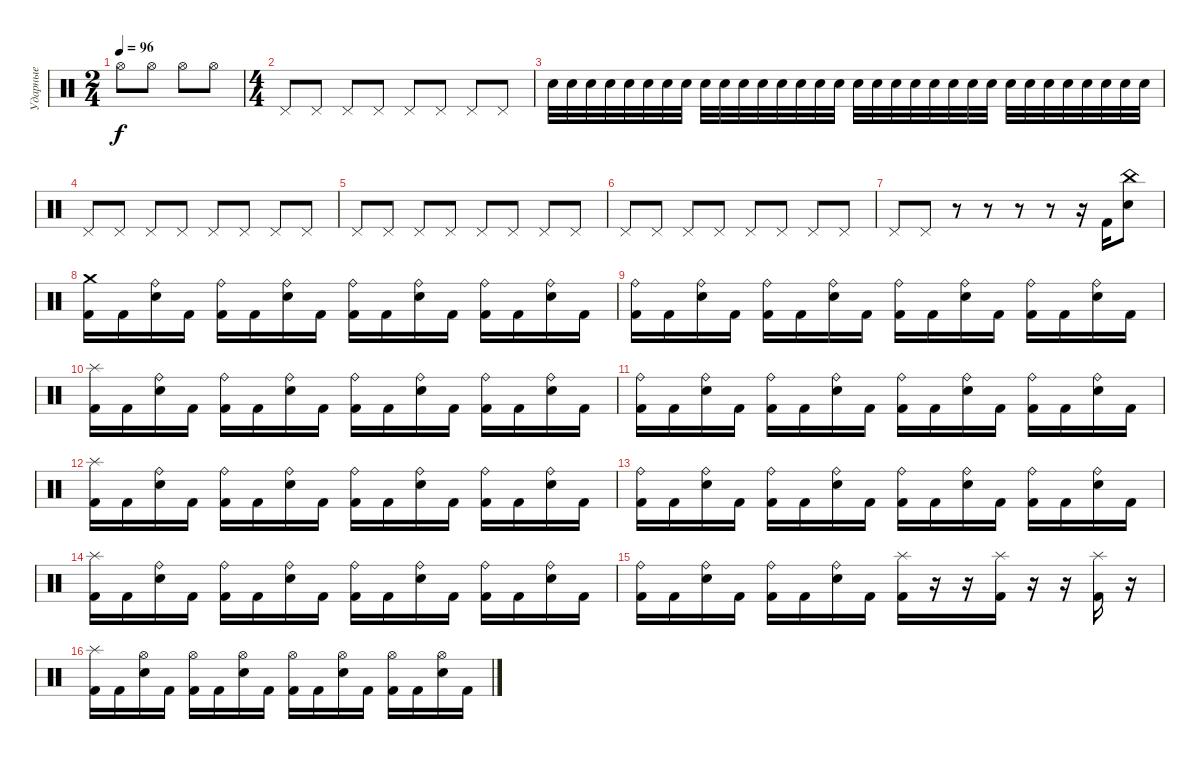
\track ("Ударные" "Ударные") {instrument percussion}
\staff {score}
\articulation defaults
\ts (2 4)
\tempo 96
\clef neutral
\ks c "Hi-Hat (open)".8{dy f} "Hi-Hat (open)".8 "Hi-Hat (open)".8 "Hi-Hat (open)".8
|
\ts (4 4)
"Pedal Hi-Hat (hit)".8 "Pedal Hi-Hat (hit)".8 "Pedal Hi-Hat (hit)".8 "Pedal Hi-Hat (hit)".8 "Pedal Hi-Hat (hit)".8 "Pedal Hi-Hat (hit)".8 "Pedal Hi-Hat (hit)".8 "Pedal Hi-Hat (hit)".8 |
"Snare (hit) 2".32 "Snare (hit) 2".32 "Snare (hit) 2".32 "Snare (hit) 2".32 "Snare (hit) 2".32 "Snare (hit) 2".32 "Snare (hit) 2".32 "Snare (hit) 2".32 "Snare (hit) 2".32 "Snare (hit) 2".32 "Snare (hit) 2".32 "Snare (hit) 2".32 "Snare (hit) 2".32 "Snare (hit) 2".32 "Snare (hit) 2".32 "Snare (hit) 2".32 "Snare (hit) 2".32 "Snare (hit) 2".32 "Snare (hit) 2".32 "Snare (hit) 2".32 "Snare (hit) 2".32 "Snare (hit) 2".32 "Snare (hit) 2".32 "Snare (hit) 2".32 "Snare (hit) 2".32 "Snare (hit) 2".32 "Snare (hit) 2".32 "Snare (hit) 2".32 "Snare (hit) 2".32 "Snare (hit) 2".32 "Snare (hit) 2".32 "Snare (hit) 2".32 |
"Pedal Hi-Hat (hit)".8 "Pedal Hi-Hat (hit)".8 "Pedal Hi-Hat (hit)".8 "Pedal Hi-Hat (hit)".8 "Pedal Hi-Hat (hit)".8 "Pedal Hi-Hat (hit)".8 "Pedal Hi-Hat (hit)".8 "Pedal Hi-Hat (hit)".8 |
"Pedal Hi-Hat (hit)".8 "Pedal Hi-Hat (hit)".8 "Pedal Hi-Hat (hit)".8 "Pedal Hi-Hat (hit)".8 "Pedal Hi-Hat (hit)".8 "Pedal Hi-Hat (hit)".8 "Pedal Hi-Hat (hit)".8 "Pedal Hi-Hat (hit)".8 |
"Pedal Hi-Hat (hit)".8 "Pedal Hi-Hat (hit)".8 "Pedal Hi-Hat (hit)".8 "Pedal Hi-Hat (hit)".8 "Pedal Hi-Hat (hit)".8 "Pedal Hi-Hat (hit)".8 "Pedal Hi-Hat (hit)".8 "Pedal Hi-Hat (hit)".8 |
"Pedal Hi-Hat (hit)".8 "Pedal Hi-Hat (hit)".8 r.8 r.8 r.8 r.8 r.16 "Kick (hit) 2".16 ("China (hit)" "Snare (hit) 2").8 |
("Crash medium (hit)" "Kick (hit) 2").16 "Kick (hit) 2".16 ("Ride (bell)" "Electric Snare (hit)").16 "Kick (hit) 2".16 ("Ride (bell)" "Kick (hit) 2").16 "Kick (hit) 2".16 ("Ride (bell)" "Electric Snare (hit)").16 "Kick (hit) 2".16 ("Ride (bell)" "Kick (hit) 2").16 "Kick (hit) 2".16 ("Ride (bell)" "Electric Snare (hit)").16 "Kick (hit) 2".16 ("Ride (bell)" "Kick (hit) 2").16 "Kick (hit) 2".16 ("Ride (bell)" "Electric Snare (hit)").16 "Kick (hit) 2".16 |
("Ride (bell)" "Kick (hit) 2").16 "Kick (hit) 2".16 ("Ride (bell)" "Electric Snare (hit)").16 "Kick (hit) 2".16 ("Ride (bell)" "Kick (hit) 2").16 "Kick (hit) 2".16 ("Ride (bell)" "Electric Snare (hit)").16 "Kick (hit) 2".16 ("Ride (bell)" "Kick (hit) 2").16 "Kick (hit) 2".16 ("Ride (bell)" "Electric Snare (hit)").16 "Kick (hit) 2".16 ("Ride (bell)" "Kick (hit) 2").16 "Kick (hit) 2".16 ("Ride (bell)" "Electric Snare (hit)").16 "Kick (hit) 2".16 |
("Splash (hit)" "Kick (hit) 2").16 "Kick (hit) 2".16 ("Ride (bell)" "Electric Snare (hit)").16 "Kick (hit) 2".16 ("Ride (bell)" "Kick (hit) 2").16 "Kick (hit) 2".16 ("Ride (bell)" "Electric Snare (hit)").16 "Kick (hit) 2".16 ("Ride (bell)" "Kick (hit) 2").16 "Kick (hit) 2".16 ("Ride (bell)" "Electric Snare (hit)").16 "Kick (hit) 2".16 ("Ride (bell)" "Kick (hit) 2").16 "Kick (hit) 2".16 ("Ride (bell)" "Electric Snare (hit)").16 "Kick (hit) 2".16 |
("Ride (bell)" "Kick (hit) 2").16 "Kick (hit) 2".16 ("Ride (bell)" "Electric Snare (hit)").16 "Kick (hit) 2".16 ("Ride (bell)" "Kick (hit) 2").16 "Kick (hit) 2".16 ("Ride (bell)" "Electric Snare (hit)").16 "Kick (hit) 2".16 ("Ride (bell)" "Kick (hit) 2").16 "Kick (hit) 2".16 ("Ride (bell)" "Electric Snare (hit)").16 "Kick (hit) 2".16 ("Ride (bell)" "Kick (hit) 2").16 "Kick (hit) 2".16 ("Ride (bell)" "Electric Snare (hit)").16 "Kick (hit) 2".16 |
("Splash (hit)" "Kick (hit) 2").16 "Kick (hit) 2".16 ("Ride (bell)" "Electric Snare (hit)").16 "Kick (hit) 2".16 ("Ride (bell)" "Kick (hit) 2").16 "Kick (hit) 2".16 ("Ride (bell)" "Electric Snare (hit)").16 "Kick (hit) 2".16 ("Ride (bell)" "Kick (hit) 2").16 "Kick (hit) 2".16 ("Ride (bell)" "Electric Snare (hit)").16 "Kick (hit) 2".16 ("Ride (bell)" "Kick (hit) 2").16 "Kick (hit) 2".16 ("Ride (bell)" "Electric Snare (hit)").16 "Kick (hit) 2".16 |
("Ride (bell)" "Kick (hit) 2").16 "Kick (hit) 2".16 ("Ride (bell)" "Electric Snare (hit)").16 "Kick (hit) 2".16 ("Ride (bell)" "Kick (hit) 2").16 "Kick (hit) 2".16 ("Ride (bell)" "Electric Snare (hit)").16 "Kick (hit) 2".16 ("Ride (bell)" "Kick (hit) 2").16 "Kick (hit) 2".16 ("Ride (bell)" "Electric Snare (hit)").16 "Kick (hit) 2".16 ("Ride (bell)" "Kick (hit) 2").16 "Kick (hit) 2".16 ("Ride (bell)" "Electric Snare (hit)").16 "Kick (hit) 2".16 |
("Splash (hit)" "Kick (hit) 2").16 "Kick (hit) 2".16 ("Ride (bell)" "Electric Snare (hit)").16 "Kick (hit) 2".16 ("Ride (bell)" "Kick (hit) 2").16 "Kick (hit) 2".16 ("Ride (bell)" "Electric Snare (hit)").16 "Kick (hit) 2".16 ("Ride (bell)" "Kick (hit) 2").16 "Kick (hit) 2".16 ("Ride (bell)" "Electric Snare (hit)").16 "Kick (hit) 2".16 ("Ride (bell)" "Kick (hit) 2").16 "Kick (hit) 2".16 ("Ride (bell)" "Electric Snare (hit)").16 "Kick (hit) 2".16 |
("Ride (bell)" "Kick (hit) 2").16 "Kick (hit) 2".16 ("Ride (bell)" "Electric Snare (hit)").16 "Kick (hit) 2".16 ("Ride (bell)" "Kick (hit) 2").16 "Kick (hit) 2".16 ("Ride (bell)" "Electric Snare (hit)").16 "Kick (hit) 2".16 ("Splash (hit)" "Kick (hit) 2").16 r.16 r.16 ("Splash (hit)" "Kick (hit) 2").16 r.16 r.16 ("Splash (hit)" "Kick (hit) 2").16 r.16 |
("Splash (hit)" "Kick (hit) 2").16 "Kick (hit) 2".16 ("Hi-Hat (open)" "Electric Snare (hit)").16 "Kick (hit) 2".16 ("Hi-Hat (open)" "Kick (hit) 2").16 "Kick (hit) 2".16 ("Hi-Hat (open)" "Electric Snare (hit)").16 "Kick (hit) 2".16 ("Hi-Hat (open)" "Kick (hit) 2").16 "Kick (hit) 2".16 ("Hi-Hat (open)" "Electric Snare (hit)").16 "Kick (hit) 2".16 ("Hi-Hat (open)" "Kick (hit) 2").16 "Kick (hit) 2".16 ("Hi-Hat (open)" "Electric Snare (hit)").16 "Kick (hit) 2".16
